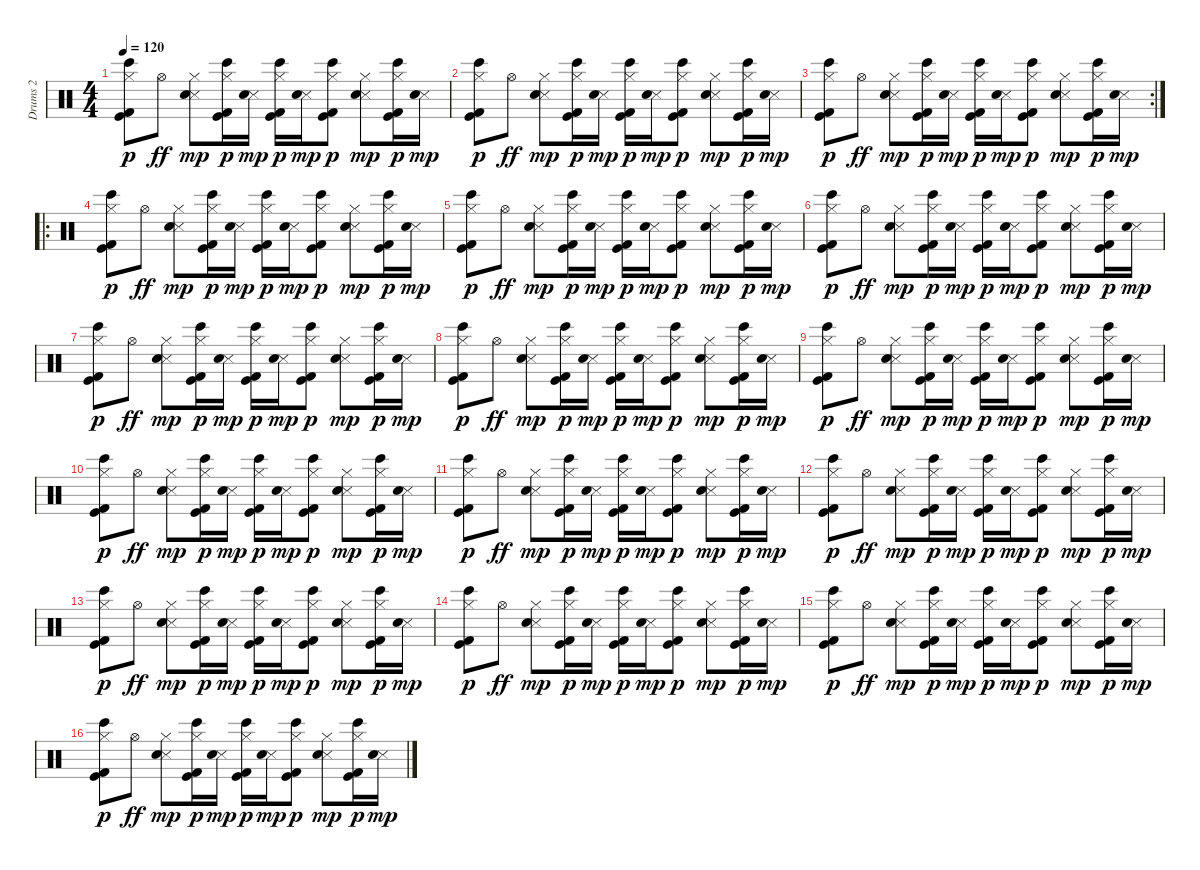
\track ("Drums 2" "Drums 2") {instrument percussion}
\staff {score}
\articulation defaults
\ts (4 4)
\tempo 120
\clef neutral
\ks c
("Hi-Hat (closed)" "Bongo High (hit)" "Kick (hit) 2" "Kick (hit)").8{dy p} "Hi-Hat (open)".8{dy ff} ("Hi-Hat (closed)" "Metronome (hit)" "Electric Snare (hit)").8{dy mp} ("Hi-Hat (closed)" "Bongo High (hit)" "Kick (hit) 2" "Kick (hit)").16{dy p} ("Metronome (hit)" "Electric Snare (hit)").16{dy mp} ("Hi-Hat (closed)" "Bongo High (hit)" "Kick (hit) 2" "Kick (hit)").16{dy p} ("Metronome (hit)" "Electric Snare (hit)").16{dy mp} ("Hi-Hat (closed)" "Bongo High (hit)" "Kick (hit) 2" "Kick (hit)").8{dy p} ("Hi-Hat (closed)" "Metronome (hit)" "Electric Snare (hit)").8{dy mp} ("Hi-Hat (closed)" "Bongo High (hit)" "Kick (hit) 2" "Kick (hit)").16{dy p} ("Metronome (hit)" "Electric Snare (hit)").16{dy mp} |
("Hi-Hat (closed)" "Bongo High (hit)" "Kick (hit) 2" "Kick (hit)").8{dy p} "Hi-Hat (open)".8{dy ff} ("Hi-Hat (closed)" "Metronome (hit)" "Electric Snare (hit)").8{dy mp} ("Hi-Hat (closed)" "Bongo High (hit)" "Kick (hit) 2" "Kick (hit)").16{dy p} ("Metronome (hit)" "Electric Snare (hit)").16{dy mp} ("Hi-Hat (closed)" "Bongo High (hit)" "Kick (hit) 2" "Kick (hit)").16{dy p} ("Metronome (hit)" "Electric Snare (hit)").16{dy mp} ("Hi-Hat (closed)" "Bongo High (hit)" "Kick (hit) 2" "Kick (hit)").8{dy p} ("Hi-Hat (closed)" "Metronome (hit)" "Electric Snare (hit)").8{dy mp} ("Hi-Hat (closed)" "Bongo High (hit)" "Kick (hit) 2" "Kick (hit)").16{dy p} ("Metronome (hit)" "Electric Snare (hit)").16{dy mp} |
\rc 2
("Hi-Hat (closed)" "Bongo High (hit)" "Kick (hit) 2" "Kick (hit)").8{dy p} "Hi-Hat (open)".8{dy ff} ("Hi-Hat (closed)" "Metronome (hit)" "Electric Snare (hit)").8{dy mp} ("Hi-Hat (closed)" "Bongo High (hit)" "Kick (hit) 2" "Kick (hit)").16{dy p} ("Metronome (hit)" "Electric Snare (hit)").16{dy mp} ("Hi-Hat (closed)" "Bongo High (hit)" "Kick (hit) 2" "Kick (hit)").16{dy p} ("Metronome (hit)" "Electric Snare (hit)").16{dy mp} ("Hi-Hat (closed)" "Bongo High (hit)" "Kick (hit) 2" "Kick (hit)").8{dy p} ("Hi-Hat (closed)" "Metronome (hit)" "Electric Snare (hit)").8{dy mp} ("Hi-Hat (closed)" "Bongo High (hit)" "Kick (hit) 2" "Kick (hit)").16{dy p} ("Metronome (hit)" "Electric Snare (hit)").16{dy mp} |
\ro
("Hi-Hat (closed)" "Bongo High (hit)" "Kick (hit) 2" "Kick (hit)").8{dy p} "Hi-Hat (open)".8{dy ff} ("Hi-Hat (closed)" "Metronome (hit)" "Electric Snare (hit)").8{dy mp} ("Hi-Hat (closed)" "Bongo High (hit)" "Kick (hit) 2" "Kick (hit)").16{dy p} ("Metronome (hit)" "Electric Snare (hit)").16{dy mp} ("Hi-Hat (closed)" "Bongo High (hit)" "Kick (hit) 2" "Kick (hit)").16{dy p} ("Metronome (hit)" "Electric Snare (hit)").16{dy mp} ("Hi-Hat (closed)" "Bongo High (hit)" "Kick (hit) 2" "Kick (hit)").8{dy p} ("Hi-Hat (closed)" "Metronome (hit)" "Electric Snare (hit)").8{dy mp} ("Hi-Hat (closed)" "Bongo High (hit)" "Kick (hit) 2" "Kick (hit)").16{dy p} ("Metronome (hit)" "Electric Snare (hit)").16{dy mp} |
("Hi-Hat (closed)" "Bongo High (hit)" "Kick (hit) 2" "Kick (hit)").8{dy p} "Hi-Hat (open)".8{dy ff} ("Hi-Hat (closed)" "Metronome (hit)" "Electric Snare (hit)").8{dy mp} ("Hi-Hat (closed)" "Bongo High (hit)" "Kick (hit) 2" "Kick (hit)").16{dy p} ("Metronome (hit)" "Electric Snare (hit)").16{dy mp} ("Hi-Hat (closed)" "Bongo High (hit)" "Kick (hit) 2" "Kick (hit)").16{dy p} ("Metronome (hit)" "Electric Snare (hit)").16{dy mp} ("Hi-Hat (closed)" "Bongo High (hit)" "Kick (hit) 2" "Kick (hit)").8{dy p} ("Hi-Hat (closed)" "Metronome (hit)" "Electric Snare (hit)").8{dy mp} ("Hi-Hat (closed)" "Bongo High (hit)" "Kick (hit) 2" "Kick (hit)").16{dy p} ("Metronome (hit)" "Electric Snare (hit)").16{dy mp} |
("Hi-Hat (closed)" "Bongo High (hit)" "Kick (hit) 2" "Kick (hit)").8{dy p} "Hi-Hat (open)".8{dy ff} ("Hi-Hat (closed)" "Metronome (hit)" "Electric Snare (hit)").8{dy mp} ("Hi-Hat (closed)" "Bongo High (hit)" "Kick (hit) 2" "Kick (hit)").16{dy p} ("Metronome (hit)" "Electric Snare (hit)").16{dy mp} ("Hi-Hat (closed)" "Bongo High (hit)" "Kick (hit) 2" "Kick (hit)").16{dy p} ("Metronome (hit)" "Electric Snare (hit)").16{dy mp} ("Hi-Hat (closed)" "Bongo High (hit)" "Kick (hit) 2" "Kick (hit)").8{dy p} ("Hi-Hat (closed)" "Metronome (hit)" "Electric Snare (hit)").8{dy mp} ("Hi-Hat (closed)" "Bongo High (hit)" "Kick (hit) 2" "Kick (hit)").16{dy p} ("Metronome (hit)" "Electric Snare (hit)").16{dy mp} |
("Hi-Hat (closed)" "Bongo High (hit)" "Kick (hit) 2" "Kick (hit)").8{dy p} "Hi-Hat (open)".8{dy ff} ("Hi-Hat (closed)" "Metronome (hit)" "Electric Snare (hit)").8{dy mp} ("Hi-Hat (closed)" "Bongo High (hit)" "Kick (hit) 2" "Kick (hit)").16{dy p} ("Metronome (hit)" "Electric Snare (hit)").16{dy mp} ("Hi-Hat (closed)" "Bongo High (hit)" "Kick (hit) 2" "Kick (hit)").16{dy p} ("Metronome (hit)" "Electric Snare (hit)").16{dy mp} ("Hi-Hat (closed)" "Bongo High (hit)" "Kick (hit) 2" "Kick (hit)").8{dy p} ("Hi-Hat (closed)" "Metronome (hit)" "Electric Snare (hit)").8{dy mp} ("Hi-Hat (closed)" "Bongo High (hit)" "Kick (hit) 2" "Kick (hit)").16{dy p} ("Metronome (hit)" "Electric Snare (hit)").16{dy mp} |
("Hi-Hat (closed)" "Bongo High (hit)" "Kick (hit) 2" "Kick (hit)").8{dy p} "Hi-Hat (open)".8{dy ff} ("Hi-Hat (closed)" "Metronome (hit)" "Electric Snare (hit)").8{dy mp} ("Hi-Hat (closed)" "Bongo High (hit)" "Kick (hit) 2" "Kick (hit)").16{dy p} ("Metronome (hit)" "Electric Snare (hit)").16{dy mp} ("Hi-Hat (closed)" "Bongo High (hit)" "Kick (hit) 2" "Kick (hit)").16{dy p} ("Metronome (hit)" "Electric Snare (hit)").16{dy mp} ("Hi-Hat (closed)" "Bongo High (hit)" "Kick (hit) 2" "Kick (hit)").8{dy p} ("Hi-Hat (closed)" "Metronome (hit)" "Electric Snare (hit)").8{dy mp} ("Hi-Hat (closed)" "Bongo High (hit)" "Kick (hit) 2" "Kick (hit)").16{dy p} ("Metronome (hit)" "Electric Snare (hit)").16{dy mp} |
("Hi-Hat (closed)" "Bongo High (hit)" "Kick (hit) 2" "Kick (hit)").8{dy p} "Hi-Hat (open)".8{dy ff} ("Hi-Hat (closed)" "Metronome (hit)" "Electric Snare (hit)").8{dy mp} ("Hi-Hat (closed)" "Bongo High (hit)" "Kick (hit) 2" "Kick (hit)").16{dy p} ("Metronome (hit)" "Electric Snare (hit)").16{dy mp} ("Hi-Hat (closed)" "Bongo High (hit)" "Kick (hit) 2" "Kick (hit)").16{dy p} ("Metronome (hit)" "Electric Snare (hit)").16{dy mp} ("Hi-Hat (closed)" "Bongo High (hit)" "Kick (hit) 2" "Kick (hit)").8{dy p} ("Hi-Hat (closed)" "Metronome (hit)" "Electric Snare (hit)").8{dy mp} ("Hi-Hat (closed)" "Bongo High (hit)" "Kick (hit) 2" "Kick (hit)").16{dy p} ("Metronome (hit)" "Electric Snare (hit)").16{dy mp} |
("Hi-Hat (closed)" "Bongo High (hit)" "Kick (hit) 2" "Kick (hit)").8{dy p} "Hi-Hat (open)".8{dy ff} ("Hi-Hat (closed)" "Metronome (hit)" "Electric Snare (hit)").8{dy mp} ("Hi-Hat (closed)" "Bongo High (hit)" "Kick (hit) 2" "Kick (hit)").16{dy p} ("Metronome (hit)" "Electric Snare (hit)").16{dy mp} ("Hi-Hat (closed)" "Bongo High (hit)" "Kick (hit) 2" "Kick (hit)").16{dy p} ("Metronome (hit)" "Electric Snare (hit)").16{dy mp} ("Hi-Hat (closed)" "Bongo High (hit)" "Kick (hit) 2" "Kick (hit)").8{dy p} ("Hi-Hat (closed)" "Metronome (hit)" "Electric Snare (hit)").8{dy mp} ("Hi-Hat (closed)" "Bongo High (hit)" "Kick (hit) 2" "Kick (hit)").16{dy p} ("Metronome (hit)" "Electric Snare (hit)").16{dy mp} |
("Hi-Hat (closed)" "Bongo High (hit)" "Kick (hit) 2" "Kick (hit)").8{dy p} "Hi-Hat (open)".8{dy ff} ("Hi-Hat (closed)" "Metronome (hit)" "Electric Snare (hit)").8{dy mp} ("Hi-Hat (closed)" "Bongo High (hit)" "Kick (hit) 2" "Kick (hit)").16{dy p} ("Metronome (hit)" "Electric Snare (hit)").16{dy mp} ("Hi-Hat (closed)" "Bongo High (hit)" "Kick (hit) 2" "Kick (hit)").16{dy p} ("Metronome (hit)" "Electric Snare (hit)").16{dy mp} ("Hi-Hat (closed)" "Bongo High (hit)" "Kick (hit) 2" "Kick (hit)").8{dy p} ("Hi-Hat (closed)" "Metronome (hit)" "Electric Snare (hit)").8{dy mp} ("Hi-Hat (closed)" "Bongo High (hit)" "Kick (hit) 2" "Kick (hit)").16{dy p} ("Metronome (hit)" "Electric Snare (hit)").16{dy mp} |
("Hi-Hat (closed)" "Bongo High (hit)" "Kick (hit) 2" "Kick (hit)").8{dy p} "Hi-Hat (open)".8{dy ff} ("Hi-Hat (closed)" "Metronome (hit)" "Electric Snare (hit)").8{dy mp} ("Hi-Hat (closed)" "Bongo High (hit)" "Kick (hit) 2" "Kick (hit)").16{dy p} ("Metronome (hit)" "Electric Snare (hit)").16{dy mp} ("Hi-Hat (closed)" "Bongo High (hit)" "Kick (hit) 2" "Kick (hit)").16{dy p} ("Metronome (hit)" "Electric Snare (hit)").16{dy mp} ("Hi-Hat (closed)" "Bongo High (hit)" "Kick (hit) 2" "Kick (hit)").8{dy p} ("Hi-Hat (closed)" "Metronome (hit)" "Electric Snare (hit)").8{dy mp} ("Hi-Hat (closed)" "Bongo High (hit)" "Kick (hit) 2" "Kick (hit)").16{dy p} ("Metronome (hit)" "Electric Snare (hit)").16{dy mp} |
("Hi-Hat (closed)" "Bongo High (hit)" "Kick (hit) 2" "Kick (hit)").8{dy p} "Hi-Hat (open)".8{dy ff} ("Hi-Hat (closed)" "Metronome (hit)" "Electric Snare (hit)").8{dy mp} ("Hi-Hat (closed)" "Bongo High (hit)" "Kick (hit) 2" "Kick (hit)").16{dy p} ("Metronome (hit)" "Electric Snare (hit)").16{dy mp} ("Hi-Hat (closed)" "Bongo High (hit)" "Kick (hit) 2" "Kick (hit)").16{dy p} ("Metronome (hit)" "Electric Snare (hit)").16{dy mp} ("Hi-Hat (closed)" "Bongo High (hit)" "Kick (hit) 2" "Kick (hit)").8{dy p} ("Hi-Hat (closed)" "Metronome (hit)" "Electric Snare (hit)").8{dy mp} ("Hi-Hat (closed)" "Bongo High (hit)" "Kick (hit) 2" "Kick (hit)").16{dy p} ("Metronome (hit)" "Electric Snare (hit)").16{dy mp} |
("Hi-Hat (closed)" "Bongo High (hit)" "Kick (hit) 2" "Kick (hit)").8{dy p} "Hi-Hat (open)".8{dy ff} ("Hi-Hat (closed)" "Metronome (hit)" "Electric Snare (hit)").8{dy mp} ("Hi-Hat (closed)" "Bongo High (hit)" "Kick (hit) 2" "Kick (hit)").16{dy p} ("Metronome (hit)" "Electric Snare (hit)").16{dy mp} ("Hi-Hat (closed)" "Bongo High (hit)" "Kick (hit) 2" "Kick (hit)").16{dy p} ("Metronome (hit)" "Electric Snare (hit)").16{dy mp} ("Hi-Hat (closed)" "Bongo High (hit)" "Kick (hit) 2" "Kick (hit)").8{dy p} ("Hi-Hat (closed)" "Metronome (hit)" "Electric Snare (hit)").8{dy mp} ("Hi-Hat (closed)" "Bongo High (hit)" "Kick (hit) 2" "Kick (hit)").16{dy p} ("Metronome (hit)" "Electric Snare (hit)").16{dy mp} |
("Hi-Hat (closed)" "Bongo High (hit)" "Kick (hit) 2" "Kick (hit)").8{dy p} "Hi-Hat (open)".8{dy ff} ("Hi-Hat (closed)" "Metronome (hit)" "Electric Snare (hit)").8{dy mp} ("Hi-Hat (closed)" "Bongo High (hit)" "Kick (hit) 2" "Kick (hit)").16{dy p} ("Metronome (hit)" "Electric Snare (hit)").16{dy mp} ("Hi-Hat (closed)" "Bongo High (hit)" "Kick (hit) 2" "Kick (hit)").16{dy p} ("Metronome (hit)" "Electric Snare (hit)").16{dy mp} ("Hi-Hat (closed)" "Bongo High (hit)" "Kick (hit) 2" "Kick (hit)").8{dy p} ("Hi-Hat (closed)" "Metronome (hit)" "Electric Snare (hit)").8{dy mp} ("Hi-Hat (closed)" "Bongo High (hit)" "Kick (hit) 2" "Kick (hit)").16{dy p} ("Metronome (hit)" "Electric Snare (hit)").16{dy mp} |
("Hi-Hat (closed)" "Bongo High (hit)" "Kick (hit) 2" "Kick (hit)").8{dy p} "Hi-Hat (open)".8{dy ff} ("Hi-Hat (closed)" "Metronome (hit)" "Electric Snare (hit)").8{dy mp} ("Hi-Hat (closed)" "Bongo High (hit)" "Kick (hit) 2" "Kick (hit)").16{dy p} ("Metronome (hit)" "Electric Snare (hit)").16{dy mp} ("Hi-Hat (closed)" "Bongo High (hit)" "Kick (hit) 2" "Kick (hit)").16{dy p} ("Metronome (hit)" "Electric Snare (hit)").16{dy mp} ("Hi-Hat (closed)" "Bongo High (hit)" "Kick (hit) 2" "Kick (hit)").8{dy p} ("Hi-Hat (closed)" "Metronome (hit)" "Electric Snare (hit)").8{dy mp} ("Hi-Hat (closed)" "Bongo High (hit)" "Kick (hit) 2" "Kick (hit)").16{dy p} ("Metronome (hit)" "Electric Snare (hit)").16{dy mp}
